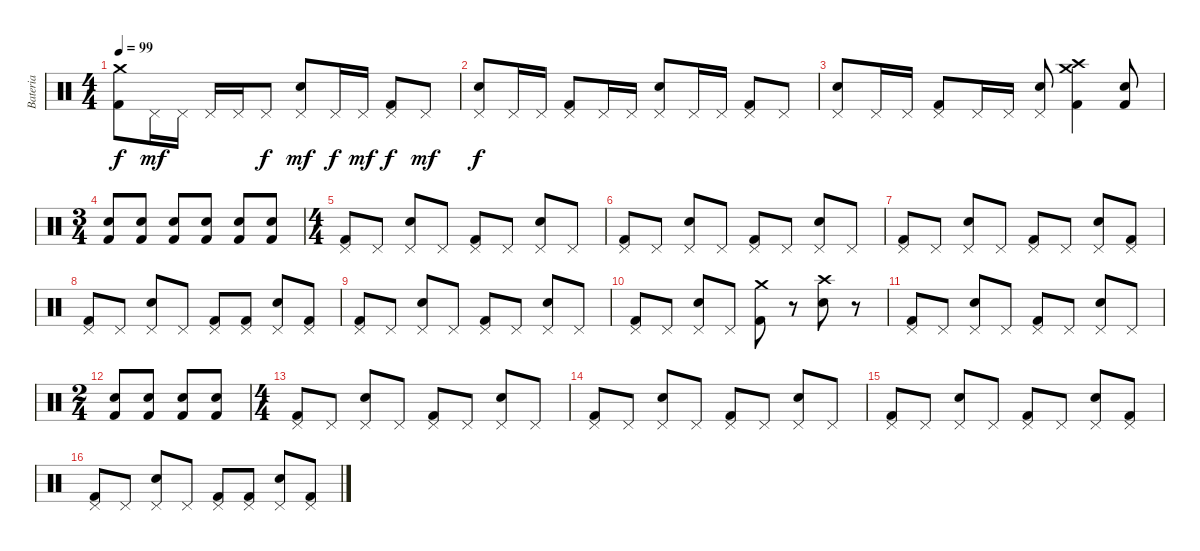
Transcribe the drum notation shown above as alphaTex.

\track ("Bateria" "Bateria") {instrument percussion}
\staff {score}
\articulation defaults
\ts (4 4)
\tempo 99
\clef neutral
\ks c
("Crash medium (hit)" "Kick (hit) 2").8{dy f} "Pedal Hi-Hat (hit)".16{dy mf} "Pedal Hi-Hat (hit)".16 "Pedal Hi-Hat (hit)".16 "Pedal Hi-Hat (hit)".16 "Pedal Hi-Hat (hit)".8{dy f} ("Pedal Hi-Hat (hit)" "Electric Snare (hit)").8{dy mf} "Pedal Hi-Hat (hit)".16{dy f} "Pedal Hi-Hat (hit)".16{dy mf} ("Pedal Hi-Hat (hit)" "Kick (hit) 2").8{dy f} "Pedal Hi-Hat (hit)".8{dy mf} |
("Pedal Hi-Hat (hit)" "Electric Snare (hit)").8{dy f} "Pedal Hi-Hat (hit)".16 "Pedal Hi-Hat (hit)".16 ("Pedal Hi-Hat (hit)" "Kick (hit) 2").8 "Pedal Hi-Hat (hit)".16 "Pedal Hi-Hat (hit)".16 ("Pedal Hi-Hat (hit)" "Electric Snare (hit)").8 "Pedal Hi-Hat (hit)".16 "Pedal Hi-Hat (hit)".16 ("Pedal Hi-Hat (hit)" "Kick (hit) 2").8 "Pedal Hi-Hat (hit)".8 |
("Pedal Hi-Hat (hit)" "Electric Snare (hit)").8 "Pedal Hi-Hat (hit)".16 "Pedal Hi-Hat (hit)".16 ("Pedal Hi-Hat (hit)" "Kick (hit) 2").8 "Pedal Hi-Hat (hit)".16 "Pedal Hi-Hat (hit)".16 ("Pedal Hi-Hat (hit)" "Electric Snare (hit)").8 ("Crash high (hit)" "Crash medium (hit)" "Kick (hit) 2").4 ("Electric Snare (hit)" "Kick (hit) 2").8 |
\ts (3 4)
("Electric Snare (hit)" "Kick (hit) 2").8 ("Electric Snare (hit)" "Kick (hit) 2").8 ("Electric Snare (hit)" "Kick (hit) 2").8 ("Electric Snare (hit)" "Kick (hit) 2").8 ("Electric Snare (hit)" "Kick (hit) 2").8 ("Electric Snare (hit)" "Kick (hit) 2").8 |
\ts (4 4)
("Pedal Hi-Hat (hit)" "Kick (hit) 2").8 "Pedal Hi-Hat (hit)".8 ("Pedal Hi-Hat (hit)" "Electric Snare (hit)").8 "Pedal Hi-Hat (hit)".8 ("Pedal Hi-Hat (hit)" "Kick (hit) 2").8 "Pedal Hi-Hat (hit)".8 ("Pedal Hi-Hat (hit)" "Electric Snare (hit)").8 "Pedal Hi-Hat (hit)".8 |
("Pedal Hi-Hat (hit)" "Kick (hit) 2").8 "Pedal Hi-Hat (hit)".8 ("Pedal Hi-Hat (hit)" "Electric Snare (hit)").8 "Pedal Hi-Hat (hit)".8 ("Pedal Hi-Hat (hit)" "Kick (hit) 2").8 "Pedal Hi-Hat (hit)".8 ("Pedal Hi-Hat (hit)" "Electric Snare (hit)").8 "Pedal Hi-Hat (hit)".8 |
("Pedal Hi-Hat (hit)" "Kick (hit) 2").8 "Pedal Hi-Hat (hit)".8 ("Pedal Hi-Hat (hit)" "Electric Snare (hit)").8 "Pedal Hi-Hat (hit)".8 ("Pedal Hi-Hat (hit)" "Kick (hit) 2").8 "Pedal Hi-Hat (hit)".8 ("Pedal Hi-Hat (hit)" "Electric Snare (hit)").8 ("Pedal Hi-Hat (hit)" "Kick (hit) 2").8 |
("Pedal Hi-Hat (hit)" "Kick (hit) 2").8 "Pedal Hi-Hat (hit)".8 ("Pedal Hi-Hat (hit)" "Electric Snare (hit)").8 "Pedal Hi-Hat (hit)".8 ("Pedal Hi-Hat (hit)" "Kick (hit) 2").8 ("Pedal Hi-Hat (hit)" "Kick (hit) 2").8 ("Pedal Hi-Hat (hit)" "Electric Snare (hit)").8 ("Pedal Hi-Hat (hit)" "Kick (hit) 2").8 |
("Pedal Hi-Hat (hit)" "Kick (hit) 2").8 "Pedal Hi-Hat (hit)".8 ("Pedal Hi-Hat (hit)" "Electric Snare (hit)").8 "Pedal Hi-Hat (hit)".8 ("Pedal Hi-Hat (hit)" "Kick (hit) 2").8 "Pedal Hi-Hat (hit)".8 ("Pedal Hi-Hat (hit)" "Electric Snare (hit)").8 "Pedal Hi-Hat (hit)".8 |
("Pedal Hi-Hat (hit)" "Kick (hit) 2").8 "Pedal Hi-Hat (hit)".8 ("Pedal Hi-Hat (hit)" "Electric Snare (hit)").8 "Pedal Hi-Hat (hit)".8 ("Crash medium (hit)" "Kick (hit) 2").8 r.8 ("Crash high (hit)" "Electric Snare (hit)").8 r.8 |
("Pedal Hi-Hat (hit)" "Kick (hit) 2").8 "Pedal Hi-Hat (hit)".8 ("Pedal Hi-Hat (hit)" "Electric Snare (hit)").8 "Pedal Hi-Hat (hit)".8 ("Pedal Hi-Hat (hit)" "Kick (hit) 2").8 "Pedal Hi-Hat (hit)".8 ("Pedal Hi-Hat (hit)" "Electric Snare (hit)").8 "Pedal Hi-Hat (hit)".8 |
\ts (2 4)
("Electric Snare (hit)" "Kick (hit) 2").8 ("Electric Snare (hit)" "Kick (hit) 2").8 ("Electric Snare (hit)" "Kick (hit) 2").8 ("Electric Snare (hit)" "Kick (hit) 2").8 |
\ts (4 4)
("Pedal Hi-Hat (hit)" "Kick (hit) 2").8 "Pedal Hi-Hat (hit)".8 ("Pedal Hi-Hat (hit)" "Electric Snare (hit)").8 "Pedal Hi-Hat (hit)".8 ("Pedal Hi-Hat (hit)" "Kick (hit) 2").8 "Pedal Hi-Hat (hit)".8 ("Pedal Hi-Hat (hit)" "Electric Snare (hit)").8 "Pedal Hi-Hat (hit)".8 |
("Pedal Hi-Hat (hit)" "Kick (hit) 2").8 "Pedal Hi-Hat (hit)".8 ("Pedal Hi-Hat (hit)" "Electric Snare (hit)").8 "Pedal Hi-Hat (hit)".8 ("Pedal Hi-Hat (hit)" "Kick (hit) 2").8 "Pedal Hi-Hat (hit)".8 ("Pedal Hi-Hat (hit)" "Electric Snare (hit)").8 "Pedal Hi-Hat (hit)".8 |
("Pedal Hi-Hat (hit)" "Kick (hit) 2").8 "Pedal Hi-Hat (hit)".8 ("Pedal Hi-Hat (hit)" "Electric Snare (hit)").8 "Pedal Hi-Hat (hit)".8 ("Pedal Hi-Hat (hit)" "Kick (hit) 2").8 "Pedal Hi-Hat (hit)".8 ("Pedal Hi-Hat (hit)" "Electric Snare (hit)").8 ("Pedal Hi-Hat (hit)" "Kick (hit) 2").8 |
("Pedal Hi-Hat (hit)" "Kick (hit) 2").8 "Pedal Hi-Hat (hit)".8 ("Pedal Hi-Hat (hit)" "Electric Snare (hit)").8 "Pedal Hi-Hat (hit)".8 ("Pedal Hi-Hat (hit)" "Kick (hit) 2").8 ("Pedal Hi-Hat (hit)" "Kick (hit) 2").8 ("Pedal Hi-Hat (hit)" "Electric Snare (hit)").8 ("Pedal Hi-Hat (hit)" "Kick (hit) 2").8
